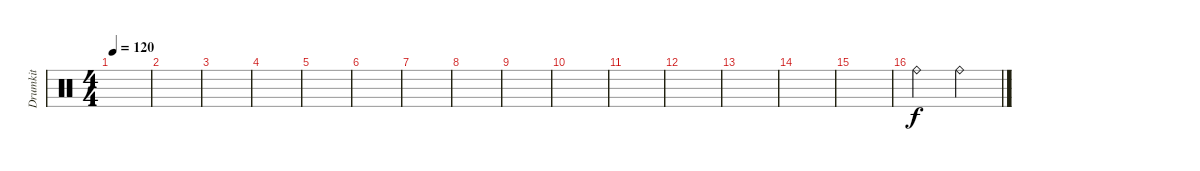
\track ("Drumkit" "Drumkit") {instrument percussion}
\staff {score}
\articulation defaults
\ts (4 4)
\tempo 120
\clef neutral
\ks c
|
|
|
|
|
|
|
|
|
|
|
|
|
|
|
"Ride (bell)".2 "Ride (bell)".2
